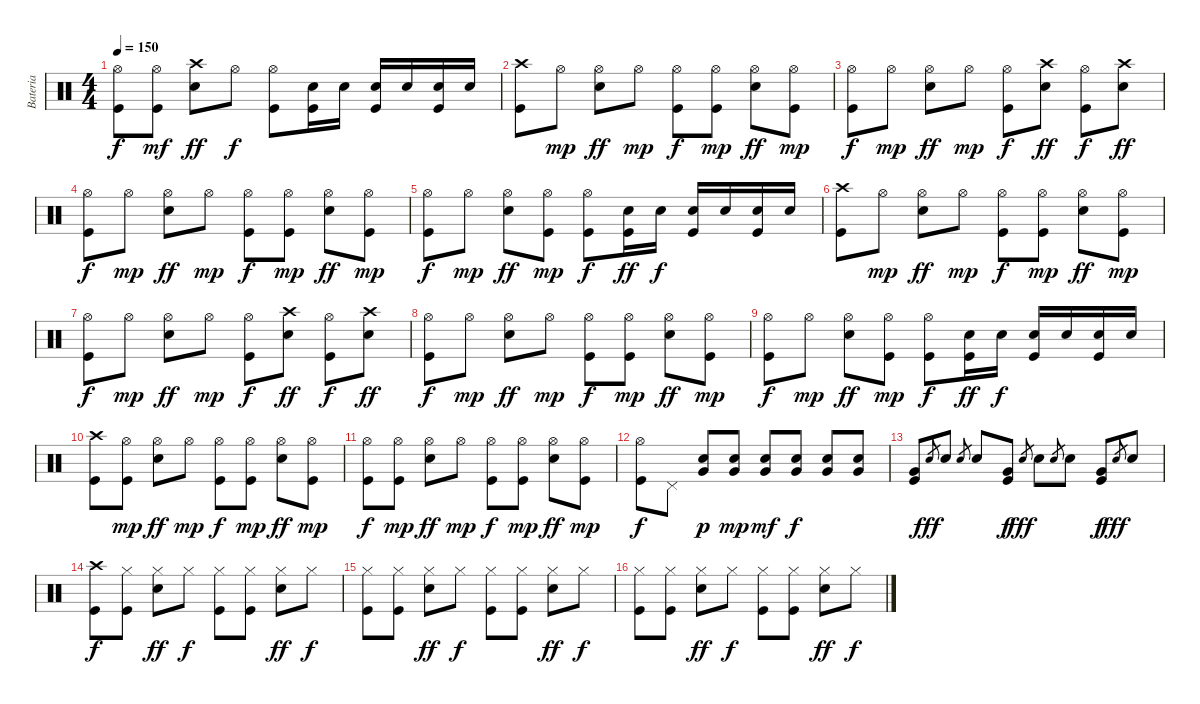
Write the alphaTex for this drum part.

\track ("Bateria" "Bateria") {instrument percussion}
\staff {score}
\articulation defaults
\ts (4 4)
\tempo 150
\clef neutral
\ks c
("Hi-Hat (open)" "Kick (hit)").8{dy f} ("Hi-Hat (open)" "Kick (hit)").8{dy mf} ("Crash high (hit)" "Electric Snare (hit)").8{dy ff} "Hi-Hat (open)".8{dy f} ("Hi-Hat (open)" "Kick (hit)").8 ("Electric Snare (hit)" "Kick (hit)").16 "Electric Snare (hit)".16 ("Electric Snare (hit)" "Kick (hit)").16 "Electric Snare (hit)".16 ("Electric Snare (hit)" "Kick (hit)").16 "Electric Snare (hit)".16 |
("Crash high (hit)" "Kick (hit)").8 "Hi-Hat (open)".8{dy mp} ("Hi-Hat (open)" "Electric Snare (hit)").8{dy ff} "Hi-Hat (open)".8{dy mp} ("Hi-Hat (open)" "Kick (hit)").8{dy f} ("Hi-Hat (open)" "Kick (hit)").8{dy mp} ("Hi-Hat (open)" "Electric Snare (hit)").8{dy ff} ("Hi-Hat (open)" "Kick (hit)").8{dy mp} |
("Hi-Hat (open)" "Kick (hit)").8{dy f} "Hi-Hat (open)".8{dy mp} ("Hi-Hat (open)" "Electric Snare (hit)").8{dy ff} "Hi-Hat (open)".8{dy mp} ("Hi-Hat (open)" "Kick (hit)").8{dy f} ("Crash high (hit)" "Electric Snare (hit)").8{dy ff} ("Hi-Hat (open)" "Kick (hit)").8{dy f} ("Crash high (hit)" "Electric Snare (hit)").8{dy ff} |
("Hi-Hat (open)" "Kick (hit)").8{dy f} "Hi-Hat (open)".8{dy mp} ("Hi-Hat (open)" "Electric Snare (hit)").8{dy ff} "Hi-Hat (open)".8{dy mp} ("Hi-Hat (open)" "Kick (hit)").8{dy f} ("Hi-Hat (open)" "Kick (hit)").8{dy mp} ("Hi-Hat (open)" "Electric Snare (hit)").8{dy ff} ("Hi-Hat (open)" "Kick (hit)").8{dy mp} |
("Hi-Hat (open)" "Kick (hit)").8{dy f} "Hi-Hat (open)".8{dy mp} ("Hi-Hat (open)" "Electric Snare (hit)").8{dy ff} ("Hi-Hat (open)" "Kick (hit)").8{dy mp} ("Hi-Hat (open)" "Kick (hit)").8{dy f} ("Electric Snare (hit)" "Kick (hit)").16{dy ff} "Electric Snare (hit)".16{dy f} ("Electric Snare (hit)" "Kick (hit)").16 "Electric Snare (hit)".16 ("Electric Snare (hit)" "Kick (hit)").16 "Electric Snare (hit)".16 |
("Crash high (hit)" "Kick (hit)").8 "Hi-Hat (open)".8{dy mp} ("Hi-Hat (open)" "Electric Snare (hit)").8{dy ff} "Hi-Hat (open)".8{dy mp} ("Hi-Hat (open)" "Kick (hit)").8{dy f} ("Hi-Hat (open)" "Kick (hit)").8{dy mp} ("Hi-Hat (open)" "Electric Snare (hit)").8{dy ff} ("Hi-Hat (open)" "Kick (hit)").8{dy mp} |
("Hi-Hat (open)" "Kick (hit)").8{dy f} "Hi-Hat (open)".8{dy mp} ("Hi-Hat (open)" "Electric Snare (hit)").8{dy ff} "Hi-Hat (open)".8{dy mp} ("Hi-Hat (open)" "Kick (hit)").8{dy f} ("Crash high (hit)" "Electric Snare (hit)").8{dy ff} ("Hi-Hat (open)" "Kick (hit)").8{dy f} ("Crash high (hit)" "Electric Snare (hit)").8{dy ff} |
("Hi-Hat (open)" "Kick (hit)").8{dy f} "Hi-Hat (open)".8{dy mp} ("Hi-Hat (open)" "Electric Snare (hit)").8{dy ff} "Hi-Hat (open)".8{dy mp} ("Hi-Hat (open)" "Kick (hit)").8{dy f} ("Hi-Hat (open)" "Kick (hit)").8{dy mp} ("Hi-Hat (open)" "Electric Snare (hit)").8{dy ff} ("Hi-Hat (open)" "Kick (hit)").8{dy mp} |
("Hi-Hat (open)" "Kick (hit)").8{dy f} "Hi-Hat (open)".8{dy mp} ("Hi-Hat (open)" "Electric Snare (hit)").8{dy ff} ("Hi-Hat (open)" "Kick (hit)").8{dy mp} ("Hi-Hat (open)" "Kick (hit)").8{dy f} ("Electric Snare (hit)" "Kick (hit)").16{dy ff} "Electric Snare (hit)".16{dy f} ("Electric Snare (hit)" "Kick (hit)").16 "Electric Snare (hit)".16 ("Electric Snare (hit)" "Kick (hit)").16 "Electric Snare (hit)".16 |
("Crash high (hit)" "Kick (hit)").8 ("Hi-Hat (open)" "Kick (hit)").8{dy mp} ("Hi-Hat (open)" "Electric Snare (hit)").8{dy ff} "Hi-Hat (open)".8{dy mp} ("Hi-Hat (open)" "Kick (hit)").8{dy f} ("Hi-Hat (open)" "Kick (hit)").8{dy mp} ("Hi-Hat (open)" "Electric Snare (hit)").8{dy ff} ("Hi-Hat (open)" "Kick (hit)").8{dy mp} |
("Hi-Hat (open)" "Kick (hit)").8{dy f} ("Hi-Hat (open)" "Kick (hit)").8{dy mp} ("Hi-Hat (open)" "Electric Snare (hit)").8{dy ff} "Hi-Hat (open)".8{dy mp} ("Hi-Hat (open)" "Kick (hit)").8{dy f} ("Hi-Hat (open)" "Kick (hit)").8{dy mp} ("Hi-Hat (open)" "Electric Snare (hit)").8{dy ff} ("Hi-Hat (open)" "Kick (hit)").8{dy mp} |
("Hi-Hat (open)" "Kick (hit)").8{dy f} "Pedal Hi-Hat (hit)".8 ("Electric Snare (hit)" "Very Low Tom (hit)").8{dy p} ("Electric Snare (hit)" "Very Low Tom (hit)").8{dy mp} ("Electric Snare (hit)" "Very Low Tom (hit)").8{dy mf} ("Electric Snare (hit)" "Very Low Tom (hit)").8{dy f} ("Electric Snare (hit)" "Very Low Tom (hit)").8 ("Electric Snare (hit)" "Very Low Tom (hit)").8 |
("Very Low Tom (hit)" "Kick (hit)").8 "Electric Snare (hit)".8{gr dy fff} "Electric Snare (hit)".8 "Electric Snare (hit)".8{gr} "Electric Snare (hit)".8 ("Very Low Tom (hit)" "Kick (hit)").8{dy f} "Electric Snare (hit)".8{gr dy fff} "Electric Snare (hit)".8 "Electric Snare (hit)".8{gr} "Electric Snare (hit)".8 ("Very Low Tom (hit)" "Kick (hit)").8{dy f} "Electric Snare (hit)".8{gr dy fff} "Electric Snare (hit)".8 |
("Crash high (hit)" "Kick (hit)").8{dy f} ("Hi-Hat (closed)" "Kick (hit)").8 ("Hi-Hat (closed)" "Electric Snare (hit)").8{dy ff} "Hi-Hat (closed)".8{dy f} ("Hi-Hat (closed)" "Kick (hit)").8 ("Hi-Hat (closed)" "Kick (hit)").8 ("Hi-Hat (closed)" "Electric Snare (hit)").8{dy ff} "Hi-Hat (closed)".8{dy f} |
("Hi-Hat (closed)" "Kick (hit)").8 ("Hi-Hat (closed)" "Kick (hit)").8 ("Hi-Hat (closed)" "Electric Snare (hit)").8{dy ff} "Hi-Hat (closed)".8{dy f} ("Hi-Hat (closed)" "Kick (hit)").8 ("Hi-Hat (closed)" "Kick (hit)").8 ("Hi-Hat (closed)" "Electric Snare (hit)").8{dy ff} "Hi-Hat (closed)".8{dy f} |
("Hi-Hat (closed)" "Kick (hit)").8 ("Hi-Hat (closed)" "Kick (hit)").8 ("Hi-Hat (closed)" "Electric Snare (hit)").8{dy ff} "Hi-Hat (closed)".8{dy f} ("Hi-Hat (closed)" "Kick (hit)").8 ("Hi-Hat (closed)" "Kick (hit)").8 ("Hi-Hat (closed)" "Electric Snare (hit)").8{dy ff} "Hi-Hat (closed)".8{dy f}
